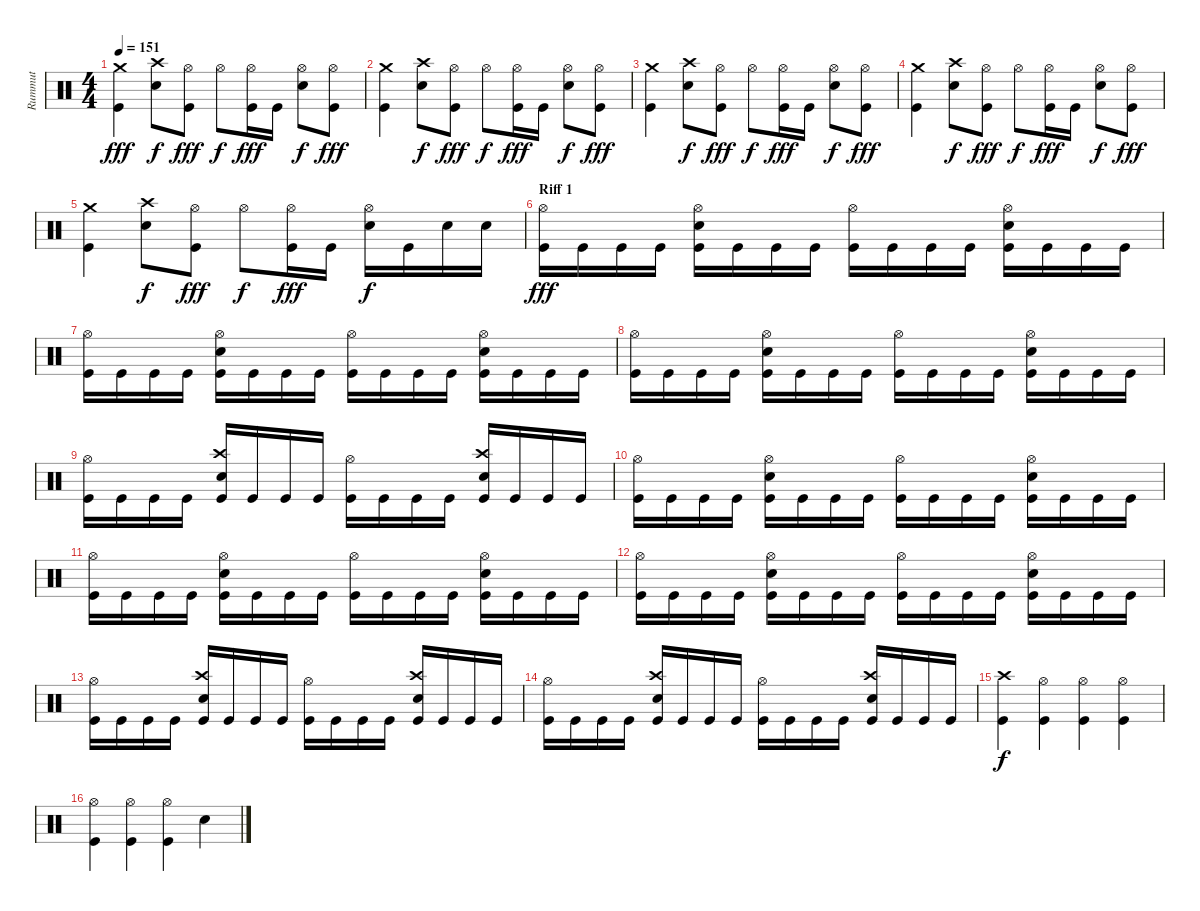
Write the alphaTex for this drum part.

\track ("Rummut" "Rummut") {instrument percussion}
\staff {score}
\articulation defaults
\ts (4 4)
\tempo 151
\clef neutral
\ks c
("Crash medium (hit)" "Kick (hit)").4{dy fff} ("Crash high (hit)" "Snare (hit) 2").8{dy f} ("Hi-Hat (open)" "Kick (hit)").8{dy fff} "Hi-Hat (open)".8{dy f} ("Hi-Hat (open)" "Kick (hit)").16{dy fff} "Kick (hit)".16 ("Hi-Hat (open)" "Snare (hit) 2").8{dy f} ("Hi-Hat (open)" "Kick (hit)").8{dy fff} |
("Crash medium (hit)" "Kick (hit)").4 ("Crash high (hit)" "Snare (hit) 2").8{dy f} ("Hi-Hat (open)" "Kick (hit)").8{dy fff} "Hi-Hat (open)".8{dy f} ("Hi-Hat (open)" "Kick (hit)").16{dy fff} "Kick (hit)".16 ("Hi-Hat (open)" "Snare (hit) 2").8{dy f} ("Hi-Hat (open)" "Kick (hit)").8{dy fff} |
("Crash medium (hit)" "Kick (hit)").4 ("Crash high (hit)" "Snare (hit) 2").8{dy f} ("Hi-Hat (open)" "Kick (hit)").8{dy fff} "Hi-Hat (open)".8{dy f} ("Hi-Hat (open)" "Kick (hit)").16{dy fff} "Kick (hit)".16 ("Hi-Hat (open)" "Snare (hit) 2").8{dy f} ("Hi-Hat (open)" "Kick (hit)").8{dy fff} |
("Crash medium (hit)" "Kick (hit)").4 ("Crash high (hit)" "Snare (hit) 2").8{dy f} ("Hi-Hat (open)" "Kick (hit)").8{dy fff} "Hi-Hat (open)".8{dy f} ("Hi-Hat (open)" "Kick (hit)").16{dy fff} "Kick (hit)".16 ("Hi-Hat (open)" "Snare (hit) 2").8{dy f} ("Hi-Hat (open)" "Kick (hit)").8{dy fff} |
("Crash medium (hit)" "Kick (hit)").4 ("Crash high (hit)" "Snare (hit) 2").8{dy f} ("Hi-Hat (open)" "Kick (hit)").8{dy fff} "Hi-Hat (open)".8{dy f} ("Hi-Hat (open)" "Kick (hit)").16{dy fff} "Kick (hit)".16 ("Hi-Hat (open)" "Snare (hit) 2").16{dy f} "Kick (hit)".16 "Snare (hit) 2".16 "Snare (hit) 2".16 |
\section ("" "Riff 1")
("Hi-Hat (open)" "Kick (hit)").16{dy fff} "Kick (hit)".16 "Kick (hit)".16 "Kick (hit)".16 ("Hi-Hat (open)" "Snare (hit) 2" "Kick (hit)").16 "Kick (hit)".16 "Kick (hit)".16 "Kick (hit)".16 ("Hi-Hat (open)" "Kick (hit)").16 "Kick (hit)".16 "Kick (hit)".16 "Kick (hit)".16 ("Hi-Hat (open)" "Snare (hit) 2" "Kick (hit)").16 "Kick (hit)".16 "Kick (hit)".16 "Kick (hit)".16 |
("Hi-Hat (open)" "Kick (hit)").16 "Kick (hit)".16 "Kick (hit)".16 "Kick (hit)".16 ("Hi-Hat (open)" "Snare (hit) 2" "Kick (hit)").16 "Kick (hit)".16 "Kick (hit)".16 "Kick (hit)".16 ("Hi-Hat (open)" "Kick (hit)").16 "Kick (hit)".16 "Kick (hit)".16 "Kick (hit)".16 ("Hi-Hat (open)" "Snare (hit) 2" "Kick (hit)").16 "Kick (hit)".16 "Kick (hit)".16 "Kick (hit)".16 |
("Hi-Hat (open)" "Kick (hit)").16 "Kick (hit)".16 "Kick (hit)".16 "Kick (hit)".16 ("Hi-Hat (open)" "Snare (hit) 2" "Kick (hit)").16 "Kick (hit)".16 "Kick (hit)".16 "Kick (hit)".16 ("Hi-Hat (open)" "Kick (hit)").16 "Kick (hit)".16 "Kick (hit)".16 "Kick (hit)".16 ("Hi-Hat (open)" "Snare (hit) 2" "Kick (hit)").16 "Kick (hit)".16 "Kick (hit)".16 "Kick (hit)".16 |
("Hi-Hat (open)" "Kick (hit)").16 "Kick (hit)".16 "Kick (hit)".16 "Kick (hit)".16 ("Crash high (hit)" "Snare (hit) 2" "Kick (hit)").16 "Kick (hit)".16 "Kick (hit)".16 "Kick (hit)".16 ("Hi-Hat (open)" "Kick (hit)").16 "Kick (hit)".16 "Kick (hit)".16 "Kick (hit)".16 ("Crash high (hit)" "Snare (hit) 2" "Kick (hit)").16 "Kick (hit)".16 "Kick (hit)".16 "Kick (hit)".16 |
("Hi-Hat (open)" "Kick (hit)").16 "Kick (hit)".16 "Kick (hit)".16 "Kick (hit)".16 ("Hi-Hat (open)" "Snare (hit) 2" "Kick (hit)").16 "Kick (hit)".16 "Kick (hit)".16 "Kick (hit)".16 ("Hi-Hat (open)" "Kick (hit)").16 "Kick (hit)".16 "Kick (hit)".16 "Kick (hit)".16 ("Hi-Hat (open)" "Snare (hit) 2" "Kick (hit)").16 "Kick (hit)".16 "Kick (hit)".16 "Kick (hit)".16 |
("Hi-Hat (open)" "Kick (hit)").16 "Kick (hit)".16 "Kick (hit)".16 "Kick (hit)".16 ("Hi-Hat (open)" "Snare (hit) 2" "Kick (hit)").16 "Kick (hit)".16 "Kick (hit)".16 "Kick (hit)".16 ("Hi-Hat (open)" "Kick (hit)").16 "Kick (hit)".16 "Kick (hit)".16 "Kick (hit)".16 ("Hi-Hat (open)" "Snare (hit) 2" "Kick (hit)").16 "Kick (hit)".16 "Kick (hit)".16 "Kick (hit)".16 |
("Hi-Hat (open)" "Kick (hit)").16 "Kick (hit)".16 "Kick (hit)".16 "Kick (hit)".16 ("Hi-Hat (open)" "Snare (hit) 2" "Kick (hit)").16 "Kick (hit)".16 "Kick (hit)".16 "Kick (hit)".16 ("Hi-Hat (open)" "Kick (hit)").16 "Kick (hit)".16 "Kick (hit)".16 "Kick (hit)".16 ("Hi-Hat (open)" "Snare (hit) 2" "Kick (hit)").16 "Kick (hit)".16 "Kick (hit)".16 "Kick (hit)".16 |
("Hi-Hat (open)" "Kick (hit)").16 "Kick (hit)".16 "Kick (hit)".16 "Kick (hit)".16 ("Crash high (hit)" "Snare (hit) 2" "Kick (hit)").16 "Kick (hit)".16 "Kick (hit)".16 "Kick (hit)".16 ("Hi-Hat (open)" "Kick (hit)").16 "Kick (hit)".16 "Kick (hit)".16 "Kick (hit)".16 ("Crash high (hit)" "Snare (hit) 2" "Kick (hit)").16 "Kick (hit)".16 "Kick (hit)".16 "Kick (hit)".16 |
("Hi-Hat (open)" "Kick (hit)").16 "Kick (hit)".16 "Kick (hit)".16 "Kick (hit)".16 ("Crash high (hit)" "Snare (hit) 2" "Kick (hit)").16 "Kick (hit)".16 "Kick (hit)".16 "Kick (hit)".16 ("Hi-Hat (open)" "Kick (hit)").16 "Kick (hit)".16 "Kick (hit)".16 "Kick (hit)".16 ("Crash high (hit)" "Snare (hit) 2" "Kick (hit)").16 "Kick (hit)".16 "Kick (hit)".16 "Kick (hit)".16 |
("Crash high (hit)" "Kick (hit)").4{dy f} ("Hi-Hat (open)" "Kick (hit)").4 ("Hi-Hat (open)" "Kick (hit)").4 ("Hi-Hat (open)" "Kick (hit)").4 |
("Hi-Hat (open)" "Kick (hit)").4 ("Hi-Hat (open)" "Kick (hit)").4 ("Hi-Hat (open)" "Kick (hit)").4 "Snare (hit) 2".4
